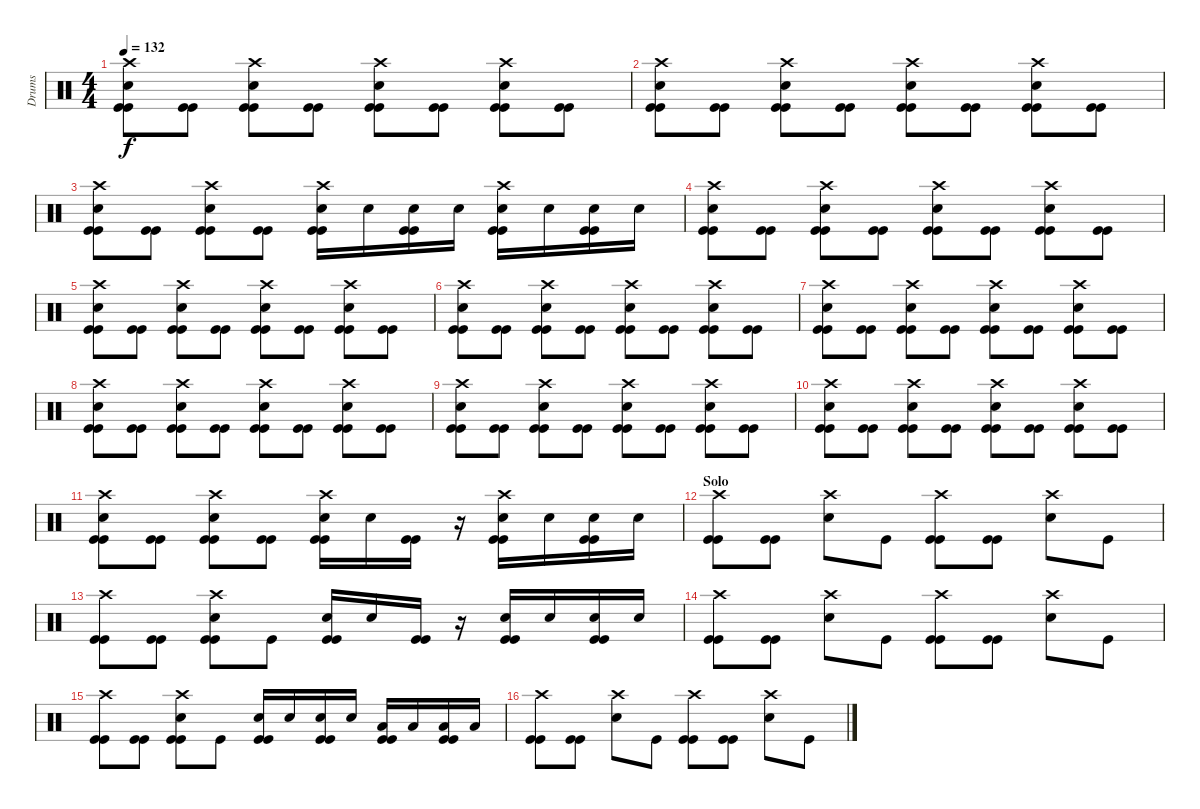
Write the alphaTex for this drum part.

\track ("Drums" "Drums") {instrument percussion}
\staff {score}
\articulation defaults
\ts (4 4)
\tempo 132
\clef neutral
\ks c
("Crash high (hit)" "Electric Snare (hit)" "Kick (hit)" "Kick (hit)").8{dy f} ("Kick (hit)" "Kick (hit)").8 ("Crash high (hit)" "Electric Snare (hit)" "Kick (hit)" "Kick (hit)").8 ("Kick (hit)" "Kick (hit)").8 ("Crash high (hit)" "Electric Snare (hit)" "Kick (hit)" "Kick (hit)").8 ("Kick (hit)" "Kick (hit)").8 ("Crash high (hit)" "Electric Snare (hit)" "Kick (hit)" "Kick (hit)").8 ("Kick (hit)" "Kick (hit)").8 |
("Crash high (hit)" "Electric Snare (hit)" "Kick (hit)" "Kick (hit)").8 ("Kick (hit)" "Kick (hit)").8 ("Crash high (hit)" "Electric Snare (hit)" "Kick (hit)" "Kick (hit)").8 ("Kick (hit)" "Kick (hit)").8 ("Crash high (hit)" "Electric Snare (hit)" "Kick (hit)" "Kick (hit)").8 ("Kick (hit)" "Kick (hit)").8 ("Crash high (hit)" "Electric Snare (hit)" "Kick (hit)" "Kick (hit)").8 ("Kick (hit)" "Kick (hit)").8 |
("Crash high (hit)" "Electric Snare (hit)" "Kick (hit)" "Kick (hit)").8 ("Kick (hit)" "Kick (hit)").8 ("Crash high (hit)" "Electric Snare (hit)" "Kick (hit)" "Kick (hit)").8 ("Kick (hit)" "Kick (hit)").8 ("Crash high (hit)" "Electric Snare (hit)" "Kick (hit)" "Kick (hit)").16 "Electric Snare (hit)".16 ("Electric Snare (hit)" "Kick (hit)" "Kick (hit)").16 "Electric Snare (hit)".16 ("Crash high (hit)" "Electric Snare (hit)" "Kick (hit)" "Kick (hit)").16 "Electric Snare (hit)".16 ("Electric Snare (hit)" "Kick (hit)" "Kick (hit)").16 "Electric Snare (hit)".16 |
("Crash high (hit)" "Electric Snare (hit)" "Kick (hit)" "Kick (hit)").8 ("Kick (hit)" "Kick (hit)").8 ("Crash high (hit)" "Electric Snare (hit)" "Kick (hit)" "Kick (hit)").8 ("Kick (hit)" "Kick (hit)").8 ("Crash high (hit)" "Electric Snare (hit)" "Kick (hit)" "Kick (hit)").8 ("Kick (hit)" "Kick (hit)").8 ("Crash high (hit)" "Electric Snare (hit)" "Kick (hit)" "Kick (hit)").8 ("Kick (hit)" "Kick (hit)").8 |
("Crash high (hit)" "Electric Snare (hit)" "Kick (hit)" "Kick (hit)").8 ("Kick (hit)" "Kick (hit)").8 ("Crash high (hit)" "Electric Snare (hit)" "Kick (hit)" "Kick (hit)").8 ("Kick (hit)" "Kick (hit)").8 ("Crash high (hit)" "Electric Snare (hit)" "Kick (hit)" "Kick (hit)").8 ("Kick (hit)" "Kick (hit)").8 ("Crash high (hit)" "Electric Snare (hit)" "Kick (hit)" "Kick (hit)").8 ("Kick (hit)" "Kick (hit)").8 |
("Crash high (hit)" "Electric Snare (hit)" "Kick (hit)" "Kick (hit)").8 ("Kick (hit)" "Kick (hit)").8 ("Crash high (hit)" "Electric Snare (hit)" "Kick (hit)" "Kick (hit)").8 ("Kick (hit)" "Kick (hit)").8 ("Crash high (hit)" "Electric Snare (hit)" "Kick (hit)" "Kick (hit)").8 ("Kick (hit)" "Kick (hit)").8 ("Crash high (hit)" "Electric Snare (hit)" "Kick (hit)" "Kick (hit)").8 ("Kick (hit)" "Kick (hit)").8 |
("Crash high (hit)" "Electric Snare (hit)" "Kick (hit)" "Kick (hit)").8 ("Kick (hit)" "Kick (hit)").8 ("Crash high (hit)" "Electric Snare (hit)" "Kick (hit)" "Kick (hit)").8 ("Kick (hit)" "Kick (hit)").8 ("Crash high (hit)" "Electric Snare (hit)" "Kick (hit)" "Kick (hit)").8 ("Kick (hit)" "Kick (hit)").8 ("Crash high (hit)" "Electric Snare (hit)" "Kick (hit)" "Kick (hit)").8 ("Kick (hit)" "Kick (hit)").8 |
("Crash high (hit)" "Electric Snare (hit)" "Kick (hit)" "Kick (hit)").8 ("Kick (hit)" "Kick (hit)").8 ("Crash high (hit)" "Electric Snare (hit)" "Kick (hit)" "Kick (hit)").8 ("Kick (hit)" "Kick (hit)").8 ("Crash high (hit)" "Electric Snare (hit)" "Kick (hit)" "Kick (hit)").8 ("Kick (hit)" "Kick (hit)").8 ("Crash high (hit)" "Electric Snare (hit)" "Kick (hit)" "Kick (hit)").8 ("Kick (hit)" "Kick (hit)").8 |
("Crash high (hit)" "Electric Snare (hit)" "Kick (hit)" "Kick (hit)").8 ("Kick (hit)" "Kick (hit)").8 ("Crash high (hit)" "Electric Snare (hit)" "Kick (hit)" "Kick (hit)").8 ("Kick (hit)" "Kick (hit)").8 ("Crash high (hit)" "Electric Snare (hit)" "Kick (hit)" "Kick (hit)").8 ("Kick (hit)" "Kick (hit)").8 ("Crash high (hit)" "Electric Snare (hit)" "Kick (hit)" "Kick (hit)").8 ("Kick (hit)" "Kick (hit)").8 |
("Crash high (hit)" "Electric Snare (hit)" "Kick (hit)" "Kick (hit)").8 ("Kick (hit)" "Kick (hit)").8 ("Crash high (hit)" "Electric Snare (hit)" "Kick (hit)" "Kick (hit)").8 ("Kick (hit)" "Kick (hit)").8 ("Crash high (hit)" "Electric Snare (hit)" "Kick (hit)" "Kick (hit)").8 ("Kick (hit)" "Kick (hit)").8 ("Crash high (hit)" "Electric Snare (hit)" "Kick (hit)" "Kick (hit)").8 ("Kick (hit)" "Kick (hit)").8 |
("Crash high (hit)" "Electric Snare (hit)" "Kick (hit)" "Kick (hit)").8 ("Kick (hit)" "Kick (hit)").8 ("Crash high (hit)" "Electric Snare (hit)" "Kick (hit)" "Kick (hit)").8 ("Kick (hit)" "Kick (hit)").8 ("Crash high (hit)" "Electric Snare (hit)" "Kick (hit)" "Kick (hit)").16 "Electric Snare (hit)".16 ("Kick (hit)" "Kick (hit)").16 r.16 ("Crash high (hit)" "Electric Snare (hit)" "Kick (hit)" "Kick (hit)").16 "Electric Snare (hit)".16 ("Electric Snare (hit)" "Kick (hit)" "Kick (hit)").16 "Electric Snare (hit)".16 |
\section ("" "Solo")
("Crash high (hit)" "Kick (hit)" "Kick (hit)").8 ("Kick (hit)" "Kick (hit)").8 ("Crash high (hit)" "Electric Snare (hit)").8 "Kick (hit)".8 ("Crash high (hit)" "Kick (hit)" "Kick (hit)").8 ("Kick (hit)" "Kick (hit)").8 ("Crash high (hit)" "Electric Snare (hit)").8 "Kick (hit)".8 |
("Crash high (hit)" "Kick (hit)" "Kick (hit)").8 ("Kick (hit)" "Kick (hit)").8 ("Crash high (hit)" "Electric Snare (hit)" "Kick (hit)" "Kick (hit)").8 "Kick (hit)".8 ("Electric Snare (hit)" "Kick (hit)" "Kick (hit)").16 "Electric Snare (hit)".16 ("Kick (hit)" "Kick (hit)").16 r.16 ("Electric Snare (hit)" "Kick (hit)" "Kick (hit)").16 "Electric Snare (hit)".16 ("Electric Snare (hit)" "Kick (hit)" "Kick (hit)").16 "Electric Snare (hit)".16 |
("Crash high (hit)" "Kick (hit)" "Kick (hit)").8 ("Kick (hit)" "Kick (hit)").8 ("Crash high (hit)" "Electric Snare (hit)").8 "Kick (hit)".8 ("Crash high (hit)" "Kick (hit)" "Kick (hit)").8 ("Kick (hit)" "Kick (hit)").8 ("Crash high (hit)" "Electric Snare (hit)").8 "Kick (hit)".8 |
("Crash high (hit)" "Kick (hit)" "Kick (hit)").8 ("Kick (hit)" "Kick (hit)").8 ("Crash high (hit)" "Electric Snare (hit)" "Kick (hit)" "Kick (hit)").8 "Kick (hit)".8 ("Electric Snare (hit)" "Kick (hit)" "Kick (hit)").16 "Electric Snare (hit)".16 ("Electric Snare (hit)" "Kick (hit)" "Kick (hit)").16 "Electric Snare (hit)".16 ("Low Tom (hit)" "Kick (hit)" "Kick (hit)").16 "Low Tom (hit)".16 ("Low Tom (hit)" "Kick (hit)" "Kick (hit)").16 "Low Tom (hit)".16 |
("Crash high (hit)" "Kick (hit)" "Kick (hit)").8 ("Kick (hit)" "Kick (hit)").8 ("Crash high (hit)" "Electric Snare (hit)").8 "Kick (hit)".8 ("Crash high (hit)" "Kick (hit)" "Kick (hit)").8 ("Kick (hit)" "Kick (hit)").8 ("Crash high (hit)" "Electric Snare (hit)").8 "Kick (hit)".8
